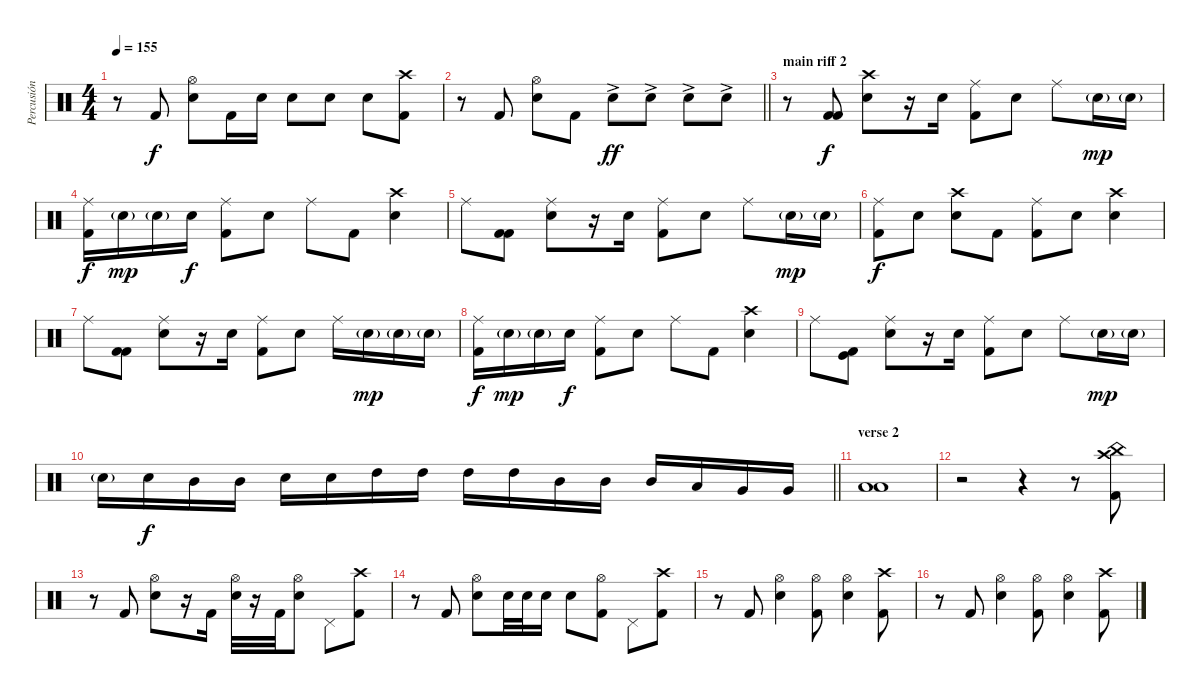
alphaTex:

\track ("Percusión" "Percusión") {instrument percussion}
\staff {score}
\articulation defaults
\ts (4 4)
\tempo 155
\clef neutral
\ks c
r.8{dy f} "Kick (hit) 2".8 ("Hi-Hat (open)" "Snare (hit) 2").8 "Kick (hit) 2".16 "Snare (hit) 2".16 "Snare (hit) 2".8 "Snare (hit) 2".8 "Snare (hit) 2".8 ("Crash high (hit)" "Kick (hit) 2").8 |
\barLineRight lightlight
r.8 "Kick (hit) 2".8 ("Hi-Hat (open)" "Snare (hit) 2").8 "Kick (hit) 2".8 "Snare (hit) 2"{ac}.8{dy ff} "Snare (hit) 2"{ac}.8 "Snare (hit) 2"{ac}.8 "Snare (hit) 2"{ac}.8 |
\section ("" "main riff 2")
r.8 ("Kick (hit) 2" "Kick (hit) 2").8{dy f} ("Crash high (hit)" "Snare (hit) 2").8 r.16 "Snare (hit) 2".16 ("Ride (middle)" "Kick (hit) 2").8 "Snare (hit) 2".8 "Ride (middle)".8 "Snare (hit) 2"{g}.16{dy mp} "Snare (hit) 2"{g}.16 |
("Ride (middle)" "Kick (hit) 2").16{dy f} "Snare (hit) 2"{g}.16{dy mp} "Snare (hit) 2"{g}.16 "Snare (hit) 2".16{dy f} ("Ride (middle)" "Kick (hit) 2").8 "Snare (hit) 2".8 "Ride (middle)".8 "Kick (hit) 2".8 ("Crash high (hit)" "Snare (hit) 2").4 |
"Ride (middle)".8 ("Kick (hit) 2" "Kick (hit) 2").8 ("Ride (middle)" "Snare (hit) 2").8 r.16 "Snare (hit) 2".16 ("Ride (middle)" "Kick (hit) 2").8 "Snare (hit) 2".8 "Ride (middle)".8 "Snare (hit) 2"{g}.16{dy mp} "Snare (hit) 2"{g}.16 |
("Ride (middle)" "Kick (hit) 2").8{dy f} "Snare (hit) 2".8 ("Crash high (hit)" "Snare (hit) 2").8 "Kick (hit) 2".8 ("Ride (middle)" "Kick (hit) 2").8 "Snare (hit) 2".8 ("Crash high (hit)" "Snare (hit) 2").4 |
"Ride (middle)".8 ("Kick (hit) 2" "Kick (hit) 2").8 ("Ride (middle)" "Snare (hit) 2").8 r.16 "Snare (hit) 2".16 ("Ride (middle)" "Kick (hit) 2").8 "Snare (hit) 2".8 "Ride (middle)".16 "Snare (hit) 2"{g}.16{dy mp} "Snare (hit) 2"{g}.16 "Snare (hit) 2"{g}.16 |
("Ride (middle)" "Kick (hit) 2").16{dy f} "Snare (hit) 2"{g}.16{dy mp} "Snare (hit) 2"{g}.16 "Snare (hit) 2".16{dy f} ("Ride (middle)" "Kick (hit) 2").8 "Snare (hit) 2".8 "Ride (middle)".8 "Kick (hit) 2".8 ("Crash high (hit)" "Snare (hit) 2").4 |
"Ride (middle)".8 ("Kick (hit) 2" "Kick (hit)").8 ("Ride (middle)" "Snare (hit) 2").8 r.16 "Snare (hit) 2".16 ("Ride (middle)" "Kick (hit) 2").8 "Snare (hit) 2".8 "Ride (middle)".8 "Snare (hit) 2"{g}.16{dy mp} "Snare (hit) 2"{g}.16 |
\barLineRight lightlight "Snare (hit) 2"{g}.16 "Snare (hit) 2".16{dy f} "Mid Tom (hit)".16 "Mid Tom (hit)".16 "Snare (hit) 2".16 "Snare (hit) 2".16 "High Tom (hit)".16 "High Tom (hit)".16 "High Tom (hit)".16 "High Tom (hit)".16 "Mid Tom (hit)".16 "Mid Tom (hit)".16 "Mid Tom (hit)".16 "Low Tom (hit)".16 "Very Low Tom (hit)".16 "Very Low Tom (hit)".16
|
\section ("" "verse 2")
("Low Tom (hit)" "Low Floor Tom (hit)").1 |
r.2 r.4 r.8 ("China (hit)" "Crash high (hit)" "Kick (hit) 2").8 |
r.8 "Kick (hit) 2".8 ("Hi-Hat (open)" "Snare (hit) 2").8 r.16 "Kick (hit) 2".16 ("Hi-Hat (open)" "Snare (hit) 2").32 r.16 "Kick (hit) 2".32 ("Hi-Hat (open)" "Snare (hit) 2").8 "Pedal Hi-Hat (hit)".8 ("Crash high (hit)" "Kick (hit) 2").8 |
r.8 "Kick (hit) 2".8 ("Hi-Hat (open)" "Snare (hit) 2").8 "Snare (hit) 2".32 "Snare (hit) 2".32 "Snare (hit) 2".16 "Snare (hit) 2".8 ("Hi-Hat (open)" "Kick (hit) 2").8 "Pedal Hi-Hat (hit)".8 ("Crash high (hit)" "Kick (hit) 2").8 |
r.8 "Kick (hit) 2".8 ("Hi-Hat (open)" "Snare (hit) 2").4 ("Hi-Hat (open)" "Kick (hit) 2").8 ("Hi-Hat (open)" "Snare (hit) 2").4 ("Crash high (hit)" "Kick (hit) 2").8 |
r.8 "Kick (hit) 2".8 ("Hi-Hat (open)" "Snare (hit) 2").4 ("Hi-Hat (open)" "Kick (hit) 2").8 ("Hi-Hat (open)" "Snare (hit) 2").4 ("Crash high (hit)" "Kick (hit) 2").8
